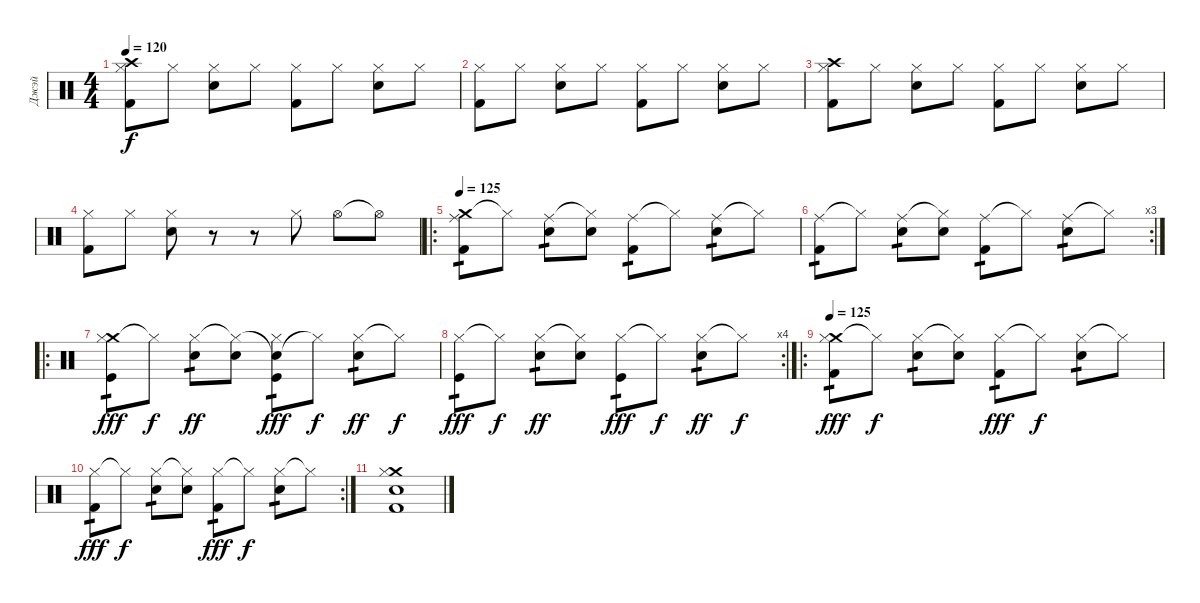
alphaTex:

\track ("Джэй" "Джэй") {instrument percussion}
\staff {score}
\articulation defaults
\ts (4 4)
\tempo 120
\clef neutral
\ks c
("Crash high (hit)" "Hi-Hat (closed)" "Kick (hit) 2").8{dy f} "Hi-Hat (closed)".8 ("Hi-Hat (closed)" "Snare (hit) 2").8 "Hi-Hat (closed)".8 ("Hi-Hat (closed)" "Kick (hit) 2").8 "Hi-Hat (closed)".8 ("Hi-Hat (closed)" "Snare (hit) 2").8 "Hi-Hat (closed)".8 |
("Hi-Hat (closed)" "Kick (hit) 2").8 "Hi-Hat (closed)".8 ("Hi-Hat (closed)" "Snare (hit) 2").8 "Hi-Hat (closed)".8 ("Hi-Hat (closed)" "Kick (hit) 2").8 "Hi-Hat (closed)".8 ("Hi-Hat (closed)" "Snare (hit) 2").8 "Hi-Hat (closed)".8 |
("Crash high (hit)" "Hi-Hat (closed)" "Kick (hit) 2").8 "Hi-Hat (closed)".8 ("Hi-Hat (closed)" "Snare (hit) 2").8 "Hi-Hat (closed)".8 ("Hi-Hat (closed)" "Kick (hit) 2").8 "Hi-Hat (closed)".8 ("Hi-Hat (closed)" "Snare (hit) 2").8 "Hi-Hat (closed)".8 |
("Hi-Hat (closed)" "Kick (hit) 2").8 "Hi-Hat (closed)".8 ("Hi-Hat (closed)" "Snare (hit) 2").8 r.8 r.8 "Hi-Hat (closed)".8 "Hi-Hat (open)".8 "Hi-Hat (open)"{t}.8 |
\ro
\tempo 125
("Crash medium (hit)" "Ride (middle)" "Kick (hit) 2").8{tp 1} "Hi-Hat (closed)"{t}.8 ("Ride (middle)" "Snare (hit) 2").8{tp 1} ("Hi-Hat (closed)"{t} "Snare (hit) 2").8 ("Ride (middle)" "Kick (hit) 2").8{tp 1} "Hi-Hat (closed)"{t}.8 ("Ride (middle)" "Snare (hit) 2").8{tp 1} "Hi-Hat (closed)"{t}.8 |
\rc 3
("Ride (middle)" "Kick (hit) 2").8{tp 1} "Hi-Hat (closed)"{t}.8 ("Ride (middle)" "Snare (hit) 2").8{tp 1} ("Hi-Hat (closed)"{t} "Snare (hit) 2").8 ("Ride (middle)" "Kick (hit) 2").8{tp 1} "Hi-Hat (closed)"{t}.8 ("Ride (middle)" "Snare (hit) 2").8{tp 1} "Hi-Hat (closed)"{t}.8 |
\ro
("Crash medium (hit)" "Hi-Hat (closed)" "Kick (hit)").8{tp 1 dy fff} "Hi-Hat (closed)"{t}.8{dy f} ("Hi-Hat (closed)" "Hand Clap (hit)").8{tp 1 dy ff} ("Hi-Hat (closed)"{t} "Hand Clap (hit)").8 ("Snare (hit)"{t} "Hi-Hat (closed)" "Kick (hit)").8{tp 1 dy fff} "Hi-Hat (closed)"{t}.8{dy f} ("Hi-Hat (closed)" "Hand Clap (hit)").8{tp 1 dy ff} "Hi-Hat (closed)"{t}.8{dy f} |
\rc 4
("Hi-Hat (closed)" "Kick (hit)").8{tp 1 dy fff} "Hi-Hat (closed)"{t}.8{dy f} ("Hi-Hat (closed)" "Hand Clap (hit)").8{tp 1 dy ff} ("Hi-Hat (closed)"{t} "Hand Clap (hit)").8 ("Hi-Hat (closed)" "Kick (hit)").8{tp 1 dy fff} "Hi-Hat (closed)"{t}.8{dy f} ("Hi-Hat (closed)" "Hand Clap (hit)").8{tp 1 dy ff} "Hi-Hat (closed)"{t}.8{dy f} |
\ro
\tempo 125
("Crash medium (hit)" "Hi-Hat (closed)" "Kick (hit) 2").8{tp 1 dy fff} "Hi-Hat (closed)"{t}.8{dy f} ("Hi-Hat (closed)" "Snare (hit) 2").8{tp 1} ("Hi-Hat (closed)"{t} "Snare (hit) 2").8 ("Hi-Hat (closed)" "Kick (hit) 2").8{tp 1 dy fff} "Hi-Hat (closed)"{t}.8{dy f} ("Hi-Hat (closed)" "Snare (hit) 2").8{tp 1} "Hi-Hat (closed)"{t}.8 |
\rc 2
("Hi-Hat (closed)" "Kick (hit) 2").8{tp 1 dy fff} "Hi-Hat (closed)"{t}.8{dy f} ("Hi-Hat (closed)" "Snare (hit) 2").8{tp 1} ("Hi-Hat (closed)"{t} "Snare (hit) 2").8 ("Hi-Hat (closed)" "Kick (hit) 2").8{tp 1 dy fff} "Hi-Hat (closed)"{t}.8{dy f} ("Hi-Hat (closed)" "Snare (hit) 2").8{tp 1} "Hi-Hat (closed)"{t}.8 |
("Crash medium (hit)" "Snare (hit) 2" "Kick (hit) 2" "Hi-Hat (closed)").1
